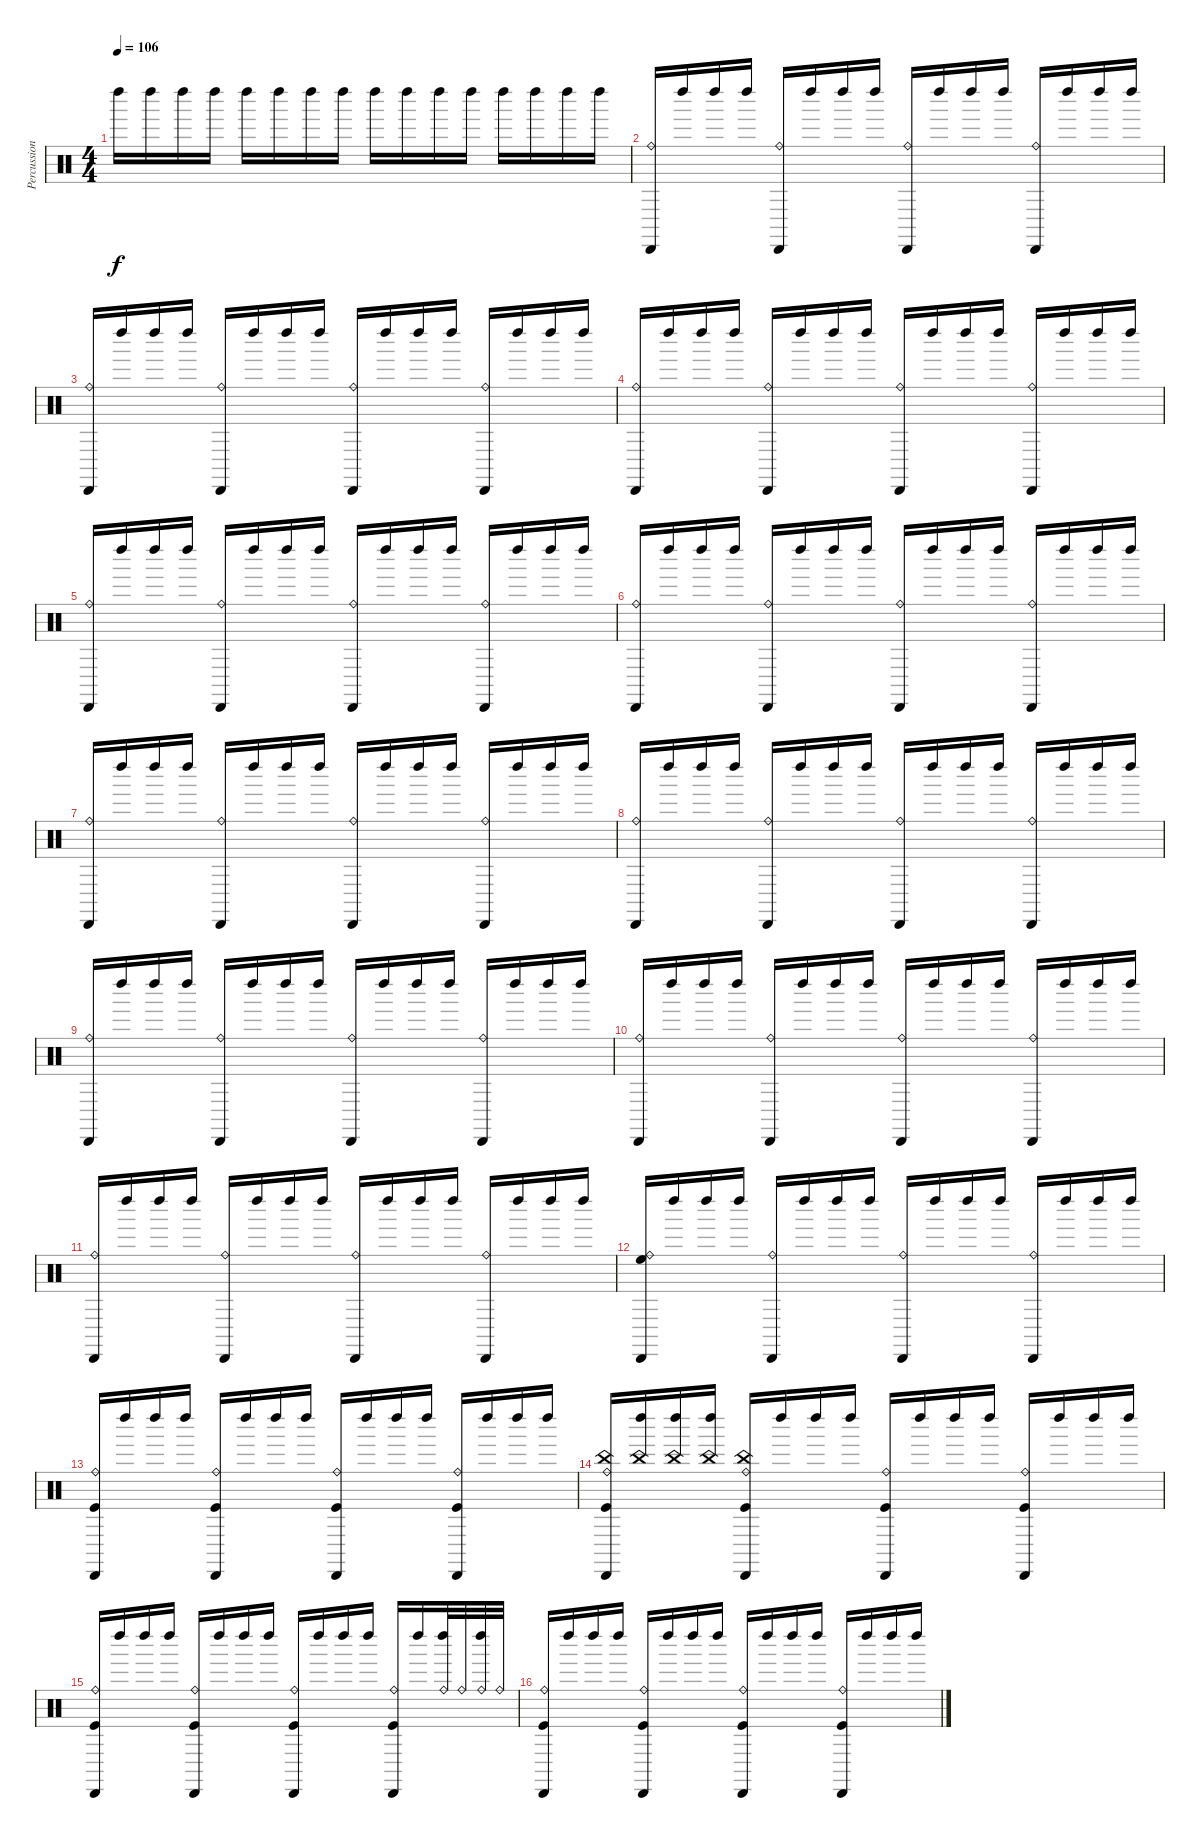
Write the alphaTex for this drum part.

\track ("Percussion" "Percussion") {instrument percussion}
\staff {score}
\articulation defaults
\ts (4 4)
\tempo 106
\clef neutral
\ks c "Left Maraca (hit)".16{dy f} "Left Maraca (hit)".16 "Left Maraca (hit)".16 "Left Maraca (hit)".16 "Left Maraca (hit)".16 "Left Maraca (hit)".16 "Left Maraca (hit)".16 "Left Maraca (hit)".16 "Left Maraca (hit)".16 "Left Maraca (hit)".16 "Left Maraca (hit)".16 "Left Maraca (hit)".16 "Left Maraca (hit)".16 "Left Maraca (hit)".16 "Left Maraca (hit)".16 "Left Maraca (hit)".16
|
("Cabasa (hit)" "Ride (bell)").16 "Left Maraca (hit)".16 "Left Maraca (hit)".16 "Left Maraca (hit)".16 ("Cabasa (hit)" "Ride (bell)").16 "Left Maraca (hit)".16 "Left Maraca (hit)".16 "Left Maraca (hit)".16 ("Cabasa (hit)" "Ride (bell)").16 "Left Maraca (hit)".16 "Left Maraca (hit)".16 "Left Maraca (hit)".16 ("Cabasa (hit)" "Ride (bell)").16 "Left Maraca (hit)".16 "Left Maraca (hit)".16 "Left Maraca (hit)".16 |
("Cabasa (hit)" "Ride (bell)").16 "Left Maraca (hit)".16 "Left Maraca (hit)".16 "Left Maraca (hit)".16 ("Cabasa (hit)" "Ride (bell)").16 "Left Maraca (hit)".16 "Left Maraca (hit)".16 "Left Maraca (hit)".16 ("Cabasa (hit)" "Ride (bell)").16 "Left Maraca (hit)".16 "Left Maraca (hit)".16 "Left Maraca (hit)".16 ("Cabasa (hit)" "Ride (bell)").16 "Left Maraca (hit)".16 "Left Maraca (hit)".16 "Left Maraca (hit)".16 |
("Cabasa (hit)" "Ride (bell)").16 "Left Maraca (hit)".16 "Left Maraca (hit)".16 "Left Maraca (hit)".16 ("Cabasa (hit)" "Ride (bell)").16 "Left Maraca (hit)".16 "Left Maraca (hit)".16 "Left Maraca (hit)".16 ("Cabasa (hit)" "Ride (bell)").16 "Left Maraca (hit)".16 "Left Maraca (hit)".16 "Left Maraca (hit)".16 ("Cabasa (hit)" "Ride (bell)").16 "Left Maraca (hit)".16 "Left Maraca (hit)".16 "Left Maraca (hit)".16 |
("Cabasa (hit)" "Ride (bell)").16 "Left Maraca (hit)".16 "Left Maraca (hit)".16 "Left Maraca (hit)".16 ("Cabasa (hit)" "Ride (bell)").16 "Left Maraca (hit)".16 "Left Maraca (hit)".16 "Left Maraca (hit)".16 ("Cabasa (hit)" "Ride (bell)").16 "Left Maraca (hit)".16 "Left Maraca (hit)".16 "Left Maraca (hit)".16 ("Cabasa (hit)" "Ride (bell)").16 "Left Maraca (hit)".16 "Left Maraca (hit)".16 "Left Maraca (hit)".16 |
("Cabasa (hit)" "Ride (bell)").16 "Left Maraca (hit)".16 "Left Maraca (hit)".16 "Left Maraca (hit)".16 ("Cabasa (hit)" "Ride (bell)").16 "Left Maraca (hit)".16 "Left Maraca (hit)".16 "Left Maraca (hit)".16 ("Cabasa (hit)" "Ride (bell)").16 "Left Maraca (hit)".16 "Left Maraca (hit)".16 "Left Maraca (hit)".16 ("Cabasa (hit)" "Ride (bell)").16 "Left Maraca (hit)".16 "Left Maraca (hit)".16 "Left Maraca (hit)".16 |
("Cabasa (hit)" "Ride (bell)").16 "Left Maraca (hit)".16 "Left Maraca (hit)".16 "Left Maraca (hit)".16 ("Cabasa (hit)" "Ride (bell)").16 "Left Maraca (hit)".16 "Left Maraca (hit)".16 "Left Maraca (hit)".16 ("Cabasa (hit)" "Ride (bell)").16 "Left Maraca (hit)".16 "Left Maraca (hit)".16 "Left Maraca (hit)".16 ("Cabasa (hit)" "Ride (bell)").16 "Left Maraca (hit)".16 "Left Maraca (hit)".16 "Left Maraca (hit)".16 |
("Cabasa (hit)" "Ride (bell)").16 "Left Maraca (hit)".16 "Left Maraca (hit)".16 "Left Maraca (hit)".16 ("Cabasa (hit)" "Ride (bell)").16 "Left Maraca (hit)".16 "Left Maraca (hit)".16 "Left Maraca (hit)".16 ("Cabasa (hit)" "Ride (bell)").16 "Left Maraca (hit)".16 "Left Maraca (hit)".16 "Left Maraca (hit)".16 ("Cabasa (hit)" "Ride (bell)").16 "Left Maraca (hit)".16 "Left Maraca (hit)".16 "Left Maraca (hit)".16 |
("Cabasa (hit)" "Ride (bell)").16 "Left Maraca (hit)".16 "Left Maraca (hit)".16 "Left Maraca (hit)".16 ("Cabasa (hit)" "Ride (bell)").16 "Left Maraca (hit)".16 "Left Maraca (hit)".16 "Left Maraca (hit)".16 ("Cabasa (hit)" "Ride (bell)").16 "Left Maraca (hit)".16 "Left Maraca (hit)".16 "Left Maraca (hit)".16 ("Cabasa (hit)" "Ride (bell)").16 "Left Maraca (hit)".16 "Left Maraca (hit)".16 "Left Maraca (hit)".16 |
("Cabasa (hit)" "Ride (bell)").16 "Left Maraca (hit)".16 "Left Maraca (hit)".16 "Left Maraca (hit)".16 ("Cabasa (hit)" "Ride (bell)").16 "Left Maraca (hit)".16 "Left Maraca (hit)".16 "Left Maraca (hit)".16 ("Cabasa (hit)" "Ride (bell)").16 "Left Maraca (hit)".16 "Left Maraca (hit)".16 "Left Maraca (hit)".16 ("Cabasa (hit)" "Ride (bell)").16 "Left Maraca (hit)".16 "Left Maraca (hit)".16 "Left Maraca (hit)".16 |
("Cabasa (hit)" "Ride (bell)").16 "Left Maraca (hit)".16 "Left Maraca (hit)".16 "Left Maraca (hit)".16 ("Cabasa (hit)" "Ride (bell)").16 "Left Maraca (hit)".16 "Left Maraca (hit)".16 "Left Maraca (hit)".16 ("Cabasa (hit)" "Ride (bell)").16 "Left Maraca (hit)".16 "Left Maraca (hit)".16 "Left Maraca (hit)".16 ("Cabasa (hit)" "Ride (bell)").16 "Left Maraca (hit)".16 "Left Maraca (hit)".16 "Left Maraca (hit)".16 |
("Cabasa (hit)" "Ride (bell)" "High Floor Tom (hit)").16 "Left Maraca (hit)".16 "Left Maraca (hit)".16 "Left Maraca (hit)".16 ("Cabasa (hit)" "Ride (bell)").16 "Left Maraca (hit)".16 "Left Maraca (hit)".16 "Left Maraca (hit)".16 ("Cabasa (hit)" "Ride (bell)").16 "Left Maraca (hit)".16 "Left Maraca (hit)".16 "Left Maraca (hit)".16 ("Cabasa (hit)" "Ride (bell)").16 "Left Maraca (hit)".16 "Left Maraca (hit)".16 "Left Maraca (hit)".16 |
("Cabasa (hit)" "Ride (bell)" "Kick (hit)").16 "Left Maraca (hit)".16 "Left Maraca (hit)".16 "Left Maraca (hit)".16 ("Cabasa (hit)" "Ride (bell)" "Kick (hit)").16 "Left Maraca (hit)".16 "Left Maraca (hit)".16 "Left Maraca (hit)".16 ("Cabasa (hit)" "Ride (bell)" "Kick (hit)").16 "Left Maraca (hit)".16 "Left Maraca (hit)".16 "Left Maraca (hit)".16 ("Cabasa (hit)" "Ride (bell)" "Kick (hit)").16 "Left Maraca (hit)".16 "Left Maraca (hit)".16 "Left Maraca (hit)".16 |
("China (hit)" "Cabasa (hit)" "Ride (bell)" "Kick (hit)").16 ("China (hit)" "Left Maraca (hit)").16 ("China (hit)" "Left Maraca (hit)").16 ("China (hit)" "Left Maraca (hit)").16 ("China (hit)" "Cabasa (hit)" "Ride (bell)" "Kick (hit)").16 "Left Maraca (hit)".16 "Left Maraca (hit)".16 "Left Maraca (hit)".16 ("Cabasa (hit)" "Ride (bell)" "Kick (hit)").16 "Left Maraca (hit)".16 "Left Maraca (hit)".16 "Left Maraca (hit)".16 ("Cabasa (hit)" "Ride (bell)" "Kick (hit)").16 "Left Maraca (hit)".16 "Left Maraca (hit)".16 "Left Maraca (hit)".16 |
("Cabasa (hit)" "Ride (bell)" "Kick (hit)").16 "Left Maraca (hit)".16 "Left Maraca (hit)".16 "Left Maraca (hit)".16 ("Cabasa (hit)" "Ride (bell)" "Kick (hit)").16 "Left Maraca (hit)".16 "Left Maraca (hit)".16 "Left Maraca (hit)".16 ("Cabasa (hit)" "Ride (bell)" "Kick (hit)").16 "Left Maraca (hit)".16 "Left Maraca (hit)".16 "Left Maraca (hit)".16 ("Cabasa (hit)" "Ride (bell)" "Kick (hit)").16 "Left Maraca (hit)".16 ("Left Maraca (hit)" "Ride (bell)").32 "Ride (bell)".32 ("Left Maraca (hit)" "Ride (bell)").32 "Ride (bell)".32 |
("Cabasa (hit)" "Ride (bell)" "Kick (hit)").16 "Left Maraca (hit)".16 "Left Maraca (hit)".16 "Left Maraca (hit)".16 ("Cabasa (hit)" "Ride (bell)" "Kick (hit)").16 "Left Maraca (hit)".16 "Left Maraca (hit)".16 "Left Maraca (hit)".16 ("Cabasa (hit)" "Ride (bell)" "Kick (hit)").16 "Left Maraca (hit)".16 "Left Maraca (hit)".16 "Left Maraca (hit)".16 ("Cabasa (hit)" "Ride (bell)" "Kick (hit)").16 "Left Maraca (hit)".16 "Left Maraca (hit)".16 "Left Maraca (hit)".16
